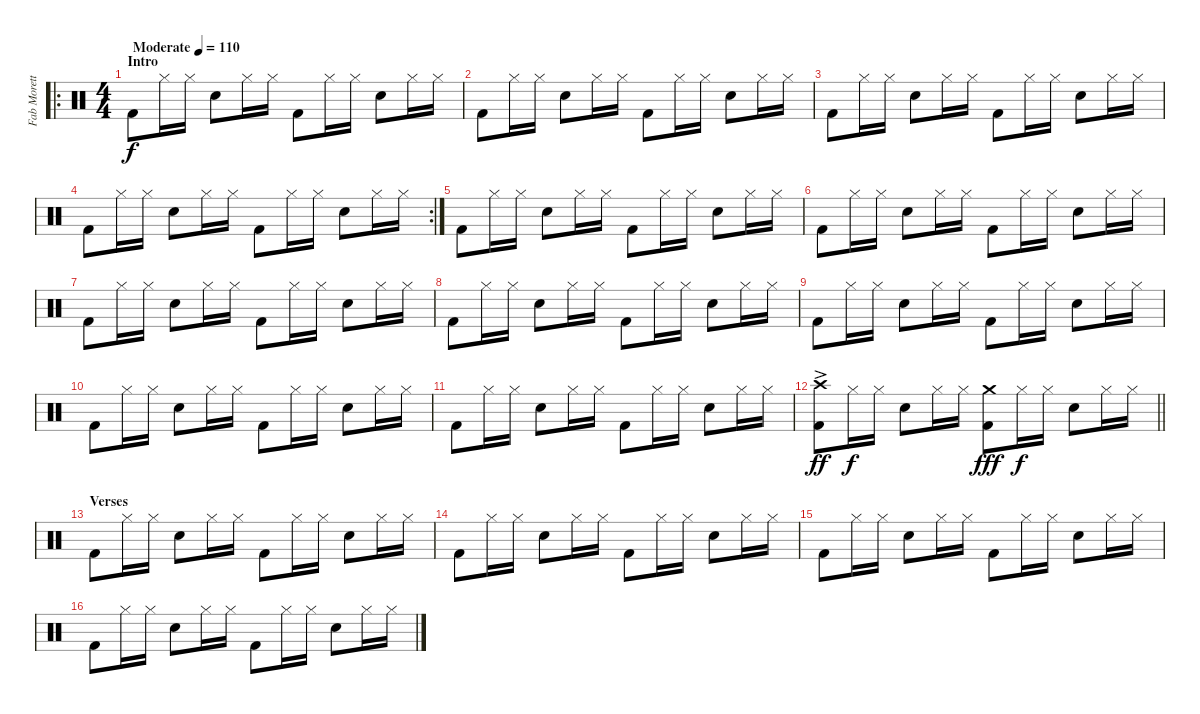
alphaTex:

\track ("Fab Moretti" "Fab Morett") {instrument percussion}
\staff {score}
\articulation defaults
\ro
\ts (4 4)
\section ("" "Intro")
\tempo (110 "Moderate")
\clef neutral
\ks c "Kick (hit) 2".8{dy f} "Hi-Hat (closed)".16 "Hi-Hat (closed)".16 "Electric Snare (hit)".8 "Hi-Hat (closed)".16 "Hi-Hat (closed)".16 "Kick (hit) 2".8 "Hi-Hat (closed)".16 "Hi-Hat (closed)".16 "Electric Snare (hit)".8 "Hi-Hat (closed)".16 "Hi-Hat (closed)".16
|
"Kick (hit) 2".8 "Hi-Hat (closed)".16 "Hi-Hat (closed)".16 "Electric Snare (hit)".8 "Hi-Hat (closed)".16 "Hi-Hat (closed)".16 "Kick (hit) 2".8 "Hi-Hat (closed)".16 "Hi-Hat (closed)".16 "Electric Snare (hit)".8 "Hi-Hat (closed)".16 "Hi-Hat (closed)".16 |
"Kick (hit) 2".8 "Hi-Hat (closed)".16 "Hi-Hat (closed)".16 "Electric Snare (hit)".8 "Hi-Hat (closed)".16 "Hi-Hat (closed)".16 "Kick (hit) 2".8 "Hi-Hat (closed)".16 "Hi-Hat (closed)".16 "Electric Snare (hit)".8 "Hi-Hat (closed)".16 "Hi-Hat (closed)".16 |
\rc 2 "Kick (hit) 2".8 "Hi-Hat (closed)".16 "Hi-Hat (closed)".16 "Electric Snare (hit)".8 "Hi-Hat (closed)".16 "Hi-Hat (closed)".16 "Kick (hit) 2".8 "Hi-Hat (closed)".16 "Hi-Hat (closed)".16 "Electric Snare (hit)".8 "Hi-Hat (closed)".16 "Hi-Hat (closed)".16
|
"Kick (hit) 2".8 "Hi-Hat (closed)".16 "Hi-Hat (closed)".16 "Electric Snare (hit)".8 "Hi-Hat (closed)".16 "Hi-Hat (closed)".16 "Kick (hit) 2".8 "Hi-Hat (closed)".16 "Hi-Hat (closed)".16 "Electric Snare (hit)".8 "Hi-Hat (closed)".16 "Hi-Hat (closed)".16 |
"Kick (hit) 2".8 "Hi-Hat (closed)".16 "Hi-Hat (closed)".16 "Electric Snare (hit)".8 "Hi-Hat (closed)".16 "Hi-Hat (closed)".16 "Kick (hit) 2".8 "Hi-Hat (closed)".16 "Hi-Hat (closed)".16 "Electric Snare (hit)".8 "Hi-Hat (closed)".16 "Hi-Hat (closed)".16 |
"Kick (hit) 2".8 "Hi-Hat (closed)".16 "Hi-Hat (closed)".16 "Electric Snare (hit)".8 "Hi-Hat (closed)".16 "Hi-Hat (closed)".16 "Kick (hit) 2".8 "Hi-Hat (closed)".16 "Hi-Hat (closed)".16 "Electric Snare (hit)".8 "Hi-Hat (closed)".16 "Hi-Hat (closed)".16 |
"Kick (hit) 2".8 "Hi-Hat (closed)".16 "Hi-Hat (closed)".16 "Electric Snare (hit)".8 "Hi-Hat (closed)".16 "Hi-Hat (closed)".16 "Kick (hit) 2".8 "Hi-Hat (closed)".16 "Hi-Hat (closed)".16 "Electric Snare (hit)".8 "Hi-Hat (closed)".16 "Hi-Hat (closed)".16 |
"Kick (hit) 2".8 "Hi-Hat (closed)".16 "Hi-Hat (closed)".16 "Electric Snare (hit)".8 "Hi-Hat (closed)".16 "Hi-Hat (closed)".16 "Kick (hit) 2".8 "Hi-Hat (closed)".16 "Hi-Hat (closed)".16 "Electric Snare (hit)".8 "Hi-Hat (closed)".16 "Hi-Hat (closed)".16 |
"Kick (hit) 2".8 "Hi-Hat (closed)".16 "Hi-Hat (closed)".16 "Electric Snare (hit)".8 "Hi-Hat (closed)".16 "Hi-Hat (closed)".16 "Kick (hit) 2".8 "Hi-Hat (closed)".16 "Hi-Hat (closed)".16 "Electric Snare (hit)".8 "Hi-Hat (closed)".16 "Hi-Hat (closed)".16 |
"Kick (hit) 2".8 "Hi-Hat (closed)".16 "Hi-Hat (closed)".16 "Electric Snare (hit)".8 "Hi-Hat (closed)".16 "Hi-Hat (closed)".16 "Kick (hit) 2".8 "Hi-Hat (closed)".16 "Hi-Hat (closed)".16 "Electric Snare (hit)".8 "Hi-Hat (closed)".16 "Hi-Hat (closed)".16 |
\barLineRight lightlight
("Kick (hit) 2" "Crash high (hit)"{ac}).8{dy ff} "Hi-Hat (closed)".16{dy f} "Hi-Hat (closed)".16 "Electric Snare (hit)".8 "Hi-Hat (closed)".16 "Hi-Hat (closed)".16 ("Kick (hit) 2" "Crash medium (hit)").8{dy fff} "Hi-Hat (closed)".16{dy f} "Hi-Hat (closed)".16 "Electric Snare (hit)".8 "Hi-Hat (closed)".16 "Hi-Hat (closed)".16 |
\section ("" "Verses")
"Kick (hit) 2".8 "Hi-Hat (closed)".16 "Hi-Hat (closed)".16 "Electric Snare (hit)".8 "Hi-Hat (closed)".16 "Hi-Hat (closed)".16 "Kick (hit) 2".8 "Hi-Hat (closed)".16 "Hi-Hat (closed)".16 "Electric Snare (hit)".8 "Hi-Hat (closed)".16 "Hi-Hat (closed)".16 |
"Kick (hit) 2".8 "Hi-Hat (closed)".16 "Hi-Hat (closed)".16 "Electric Snare (hit)".8 "Hi-Hat (closed)".16 "Hi-Hat (closed)".16 "Kick (hit) 2".8 "Hi-Hat (closed)".16 "Hi-Hat (closed)".16 "Electric Snare (hit)".8 "Hi-Hat (closed)".16 "Hi-Hat (closed)".16 |
"Kick (hit) 2".8 "Hi-Hat (closed)".16 "Hi-Hat (closed)".16 "Electric Snare (hit)".8 "Hi-Hat (closed)".16 "Hi-Hat (closed)".16 "Kick (hit) 2".8 "Hi-Hat (closed)".16 "Hi-Hat (closed)".16 "Electric Snare (hit)".8 "Hi-Hat (closed)".16 "Hi-Hat (closed)".16 |
"Kick (hit) 2".8 "Hi-Hat (closed)".16 "Hi-Hat (closed)".16 "Electric Snare (hit)".8 "Hi-Hat (closed)".16 "Hi-Hat (closed)".16 "Kick (hit) 2".8 "Hi-Hat (closed)".16 "Hi-Hat (closed)".16 "Electric Snare (hit)".8 "Hi-Hat (closed)".16 "Hi-Hat (closed)".16
